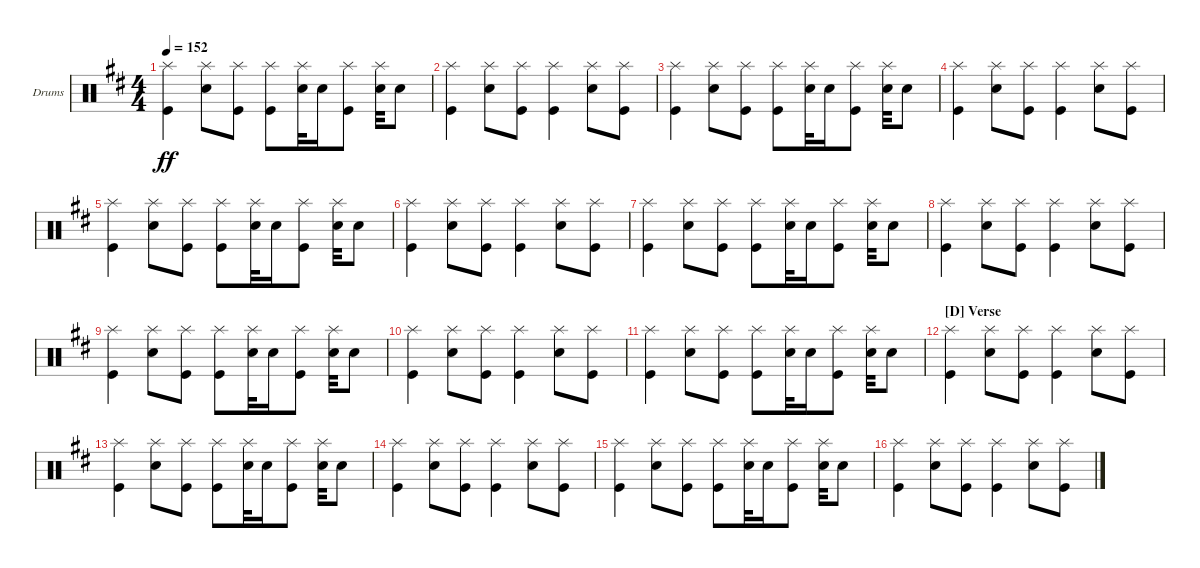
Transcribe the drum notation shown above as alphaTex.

\defaultSystemsLayout 4
\bracketExtendMode groupsimilarinstruments
\firstSystemTrackNameOrientation horizontal
\otherSystemsTrackNameOrientation horizontal
\track ("Drumkit" "Drums") {instrument percussion}
\staff {score}
\articulation defaults
\ts (4 4)
\tempo 152
\clef neutral
\ks d
("Kick (hit)" "Splash (hit)").4{dy ff} ("Snare (hit) 2" "Splash (hit)").8 ("Kick (hit)" "Splash (hit)").8 ("Kick (hit)" "Splash (hit)").8 ("Snare (hit) 2" "Splash (hit)").32 "Snare (hit) 2".16 ("Kick (hit)" "Splash (hit)").8 ("Snare (hit) 2" "Splash (hit)").32 "Snare (hit) 2".8 |
("Kick (hit)" "Splash (hit)").4 ("Snare (hit) 2" "Splash (hit)").8 ("Kick (hit)" "Splash (hit)").8 ("Kick (hit)" "Splash (hit)").4 ("Snare (hit) 2" "Splash (hit)").8 ("Kick (hit)" "Splash (hit)").8 |
("Kick (hit)" "Splash (hit)").4 ("Snare (hit) 2" "Splash (hit)").8 ("Kick (hit)" "Splash (hit)").8 ("Kick (hit)" "Splash (hit)").8 ("Snare (hit) 2" "Splash (hit)").32 "Snare (hit) 2".16 ("Kick (hit)" "Splash (hit)").8 ("Snare (hit) 2" "Splash (hit)").32 "Snare (hit) 2".8 |
("Kick (hit)" "Splash (hit)").4 ("Snare (hit) 2" "Splash (hit)").8 ("Kick (hit)" "Splash (hit)").8 ("Kick (hit)" "Splash (hit)").4 ("Snare (hit) 2" "Splash (hit)").8 ("Kick (hit)" "Splash (hit)").8 |
("Kick (hit)" "Splash (hit)").4 ("Snare (hit) 2" "Splash (hit)").8 ("Kick (hit)" "Splash (hit)").8 ("Kick (hit)" "Splash (hit)").8 ("Snare (hit) 2" "Splash (hit)").32 "Snare (hit) 2".16 ("Kick (hit)" "Splash (hit)").8 ("Snare (hit) 2" "Splash (hit)").32 "Snare (hit) 2".8 |
("Kick (hit)" "Splash (hit)").4 ("Snare (hit) 2" "Splash (hit)").8 ("Kick (hit)" "Splash (hit)").8 ("Kick (hit)" "Splash (hit)").4 ("Snare (hit) 2" "Splash (hit)").8 ("Kick (hit)" "Splash (hit)").8 |
("Kick (hit)" "Splash (hit)").4 ("Snare (hit) 2" "Splash (hit)").8 ("Kick (hit)" "Splash (hit)").8 ("Kick (hit)" "Splash (hit)").8 ("Snare (hit) 2" "Splash (hit)").32 "Snare (hit) 2".16 ("Kick (hit)" "Splash (hit)").8 ("Snare (hit) 2" "Splash (hit)").32 "Snare (hit) 2".8 |
("Kick (hit)" "Splash (hit)").4 ("Snare (hit) 2" "Splash (hit)").8 ("Kick (hit)" "Splash (hit)").8 ("Kick (hit)" "Splash (hit)").4 ("Snare (hit) 2" "Splash (hit)").8 ("Kick (hit)" "Splash (hit)").8 |
("Kick (hit)" "Splash (hit)").4 ("Snare (hit) 2" "Splash (hit)").8 ("Kick (hit)" "Splash (hit)").8 ("Kick (hit)" "Splash (hit)").8 ("Snare (hit) 2" "Splash (hit)").32 "Snare (hit) 2".16 ("Kick (hit)" "Splash (hit)").8 ("Snare (hit) 2" "Splash (hit)").32 "Snare (hit) 2".8 |
("Kick (hit)" "Splash (hit)").4 ("Snare (hit) 2" "Splash (hit)").8 ("Kick (hit)" "Splash (hit)").8 ("Kick (hit)" "Splash (hit)").4 ("Snare (hit) 2" "Splash (hit)").8 ("Kick (hit)" "Splash (hit)").8 |
("Kick (hit)" "Splash (hit)").4 ("Snare (hit) 2" "Splash (hit)").8 ("Kick (hit)" "Splash (hit)").8 ("Kick (hit)" "Splash (hit)").8 ("Snare (hit) 2" "Splash (hit)").32 "Snare (hit) 2".16 ("Kick (hit)" "Splash (hit)").8 ("Snare (hit) 2" "Splash (hit)").32 "Snare (hit) 2".8 |
\section ("D" "Verse")
("Kick (hit)" "Splash (hit)").4 ("Snare (hit) 2" "Splash (hit)").8 ("Kick (hit)" "Splash (hit)").8 ("Kick (hit)" "Splash (hit)").4 ("Snare (hit) 2" "Splash (hit)").8 ("Kick (hit)" "Splash (hit)").8 |
("Kick (hit)" "Splash (hit)").4 ("Snare (hit) 2" "Splash (hit)").8 ("Kick (hit)" "Splash (hit)").8 ("Kick (hit)" "Splash (hit)").8 ("Snare (hit) 2" "Splash (hit)").32 "Snare (hit) 2".16 ("Kick (hit)" "Splash (hit)").8 ("Snare (hit) 2" "Splash (hit)").32 "Snare (hit) 2".8 |
("Kick (hit)" "Splash (hit)").4 ("Snare (hit) 2" "Splash (hit)").8 ("Kick (hit)" "Splash (hit)").8 ("Kick (hit)" "Splash (hit)").4 ("Snare (hit) 2" "Splash (hit)").8 ("Kick (hit)" "Splash (hit)").8 |
("Kick (hit)" "Splash (hit)").4 ("Snare (hit) 2" "Splash (hit)").8 ("Kick (hit)" "Splash (hit)").8 ("Kick (hit)" "Splash (hit)").8 ("Snare (hit) 2" "Splash (hit)").32 "Snare (hit) 2".16 ("Kick (hit)" "Splash (hit)").8 ("Snare (hit) 2" "Splash (hit)").32 "Snare (hit) 2".8 |
("Kick (hit)" "Splash (hit)").4 ("Snare (hit) 2" "Splash (hit)").8 ("Kick (hit)" "Splash (hit)").8 ("Kick (hit)" "Splash (hit)").4 ("Snare (hit) 2" "Splash (hit)").8 ("Kick (hit)" "Splash (hit)").8
